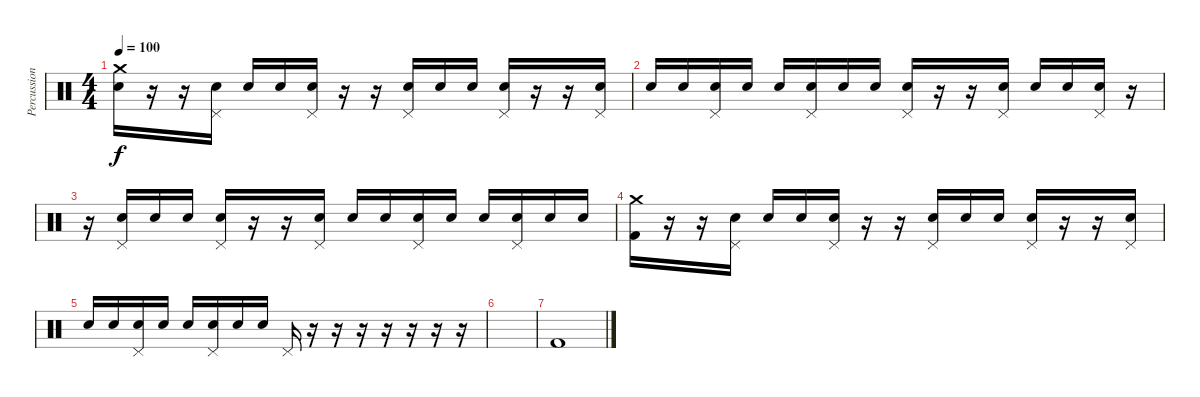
\track ("Percussion" "Percussion") {instrument percussion}
\staff {score}
\articulation defaults
\ts (4 4)
\tempo 100
\clef neutral
\ks c
("Crash medium (hit)" "Snare (hit) 2").16{dy f} r.16 r.16 ("Pedal Hi-Hat (hit)" "Snare (hit) 2").16 "Snare (hit) 2".16 "Snare (hit) 2".16 ("Pedal Hi-Hat (hit)" "Snare (hit) 2").16 r.16 r.16 ("Pedal Hi-Hat (hit)" "Snare (hit) 2").16 "Snare (hit) 2".16 "Snare (hit) 2".16 ("Pedal Hi-Hat (hit)" "Snare (hit) 2").16 r.16 r.16 ("Pedal Hi-Hat (hit)" "Snare (hit) 2").16 |
"Snare (hit) 2".16 "Snare (hit) 2".16 ("Pedal Hi-Hat (hit)" "Snare (hit) 2").16 "Snare (hit) 2".16 "Snare (hit) 2".16 ("Pedal Hi-Hat (hit)" "Snare (hit) 2").16 "Snare (hit) 2".16 "Snare (hit) 2".16 ("Pedal Hi-Hat (hit)" "Snare (hit) 2").16 r.16 r.16 ("Pedal Hi-Hat (hit)" "Snare (hit) 2").16 "Snare (hit) 2".16 "Snare (hit) 2".16 ("Pedal Hi-Hat (hit)" "Snare (hit) 2").16 r.16 |
r.16 ("Pedal Hi-Hat (hit)" "Snare (hit) 2").16 "Snare (hit) 2".16 "Snare (hit) 2".16 ("Pedal Hi-Hat (hit)" "Snare (hit) 2").16 r.16 r.16 ("Pedal Hi-Hat (hit)" "Snare (hit) 2").16 "Snare (hit) 2".16 "Snare (hit) 2".16 ("Pedal Hi-Hat (hit)" "Snare (hit) 2").16 "Snare (hit) 2".16 "Snare (hit) 2".16 ("Pedal Hi-Hat (hit)" "Snare (hit) 2").16 "Snare (hit) 2".16 "Snare (hit) 2".16 |
("Crash medium (hit)" "Kick (hit) 2").16 r.16 r.16 ("Pedal Hi-Hat (hit)" "Snare (hit) 2").16 "Snare (hit) 2".16 "Snare (hit) 2".16 ("Pedal Hi-Hat (hit)" "Snare (hit) 2").16 r.16 r.16 ("Pedal Hi-Hat (hit)" "Snare (hit) 2").16 "Snare (hit) 2".16 "Snare (hit) 2".16 ("Pedal Hi-Hat (hit)" "Snare (hit) 2").16 r.16 r.16 ("Pedal Hi-Hat (hit)" "Snare (hit) 2").16 |
"Snare (hit) 2".16 "Snare (hit) 2".16 ("Pedal Hi-Hat (hit)" "Snare (hit) 2").16 "Snare (hit) 2".16 "Snare (hit) 2".16 ("Pedal Hi-Hat (hit)" "Snare (hit) 2").16 "Snare (hit) 2".16 "Snare (hit) 2".16 "Pedal Hi-Hat (hit)".16 r.16 r.16 r.16 r.16 r.16 r.16 r.16 |
|
"Kick (hit) 2".1
